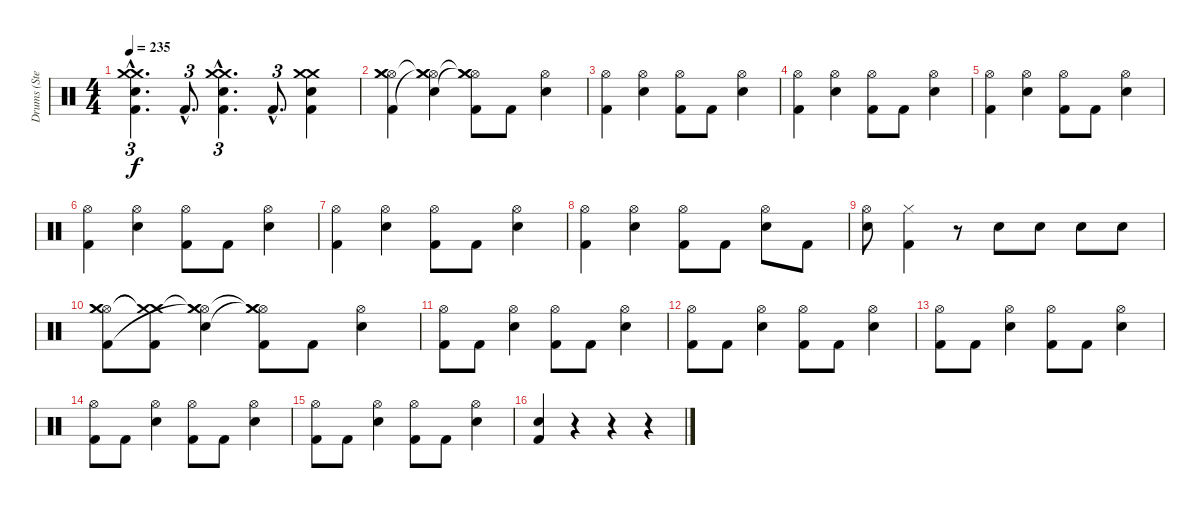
\track ("Drums (Steve Jocz)" "Drums (Ste") {instrument percussion}
\staff {score}
\articulation defaults
\ts (4 4)
\tempo 235
\clef neutral
\ks c
("Crash medium (hit)"{hac} "Crash medium (hit)"{hac} "Electric Snare (hit)"{hac} "Kick (hit) 2"{hac}).4{d tu (3 2) dy f} "Kick (hit) 2"{hac}.8{d tu (3 2)} ("Crash medium (hit)"{hac} "Crash medium (hit)"{hac} "Electric Snare (hit)"{hac} "Kick (hit) 2"{hac}).4{d tu (3 2)} "Kick (hit) 2"{hac}.8{d tu (3 2)} ("Crash medium (hit)" "Crash medium (hit)" "Electric Snare (hit)" "Kick (hit) 2").4 |
("Hi-Hat (open)" "Crash medium (hit)" "Crash medium (hit)" "Kick (hit) 2").4 ("Hi-Hat (open)" "Crash medium (hit)"{t} "Electric Snare (hit)" "Crash medium (hit)"{t}).4 ("Hi-Hat (open)" "Crash medium (hit)"{t} "Crash medium (hit)"{t} "Kick (hit) 2").8 "Kick (hit) 2".8 ("Hi-Hat (open)" "Electric Snare (hit)").4 |
("Hi-Hat (open)" "Kick (hit) 2").4 ("Hi-Hat (open)" "Electric Snare (hit)").4 ("Hi-Hat (open)" "Kick (hit) 2").8 "Kick (hit) 2".8 ("Hi-Hat (open)" "Electric Snare (hit)").4 |
("Hi-Hat (open)" "Kick (hit) 2").4 ("Hi-Hat (open)" "Electric Snare (hit)").4 ("Hi-Hat (open)" "Kick (hit) 2").8 "Kick (hit) 2".8 ("Hi-Hat (open)" "Electric Snare (hit)").4 |
("Hi-Hat (open)" "Kick (hit) 2").4 ("Hi-Hat (open)" "Electric Snare (hit)").4 ("Hi-Hat (open)" "Kick (hit) 2").8 "Kick (hit) 2".8 ("Hi-Hat (open)" "Electric Snare (hit)").4 |
("Hi-Hat (open)" "Kick (hit) 2").4 ("Hi-Hat (open)" "Electric Snare (hit)").4 ("Hi-Hat (open)" "Kick (hit) 2").8 "Kick (hit) 2".8 ("Hi-Hat (open)" "Electric Snare (hit)").4 |
("Hi-Hat (open)" "Kick (hit) 2").4 ("Hi-Hat (open)" "Electric Snare (hit)").4 ("Hi-Hat (open)" "Kick (hit) 2").8 "Kick (hit) 2".8 ("Hi-Hat (open)" "Electric Snare (hit)").4 |
("Hi-Hat (open)" "Kick (hit) 2").4 ("Hi-Hat (open)" "Electric Snare (hit)").4 ("Hi-Hat (open)" "Kick (hit) 2").8 "Kick (hit) 2".8 ("Hi-Hat (open)" "Electric Snare (hit)").8 "Kick (hit) 2".8 |
("Hi-Hat (open)" "Electric Snare (hit)").8 ("Hi-Hat (closed)" "Kick (hit) 2").4 r.8 "Electric Snare (hit)".8 "Electric Snare (hit)".8 "Electric Snare (hit)".8 "Electric Snare (hit)".8 |
("Hi-Hat (open)" "Crash medium (hit)" "Crash medium (hit)" "Kick (hit) 2").8 ("Crash medium (hit)"{t} "Crash medium (hit)"{t} "Kick (hit) 2").8 ("Hi-Hat (open)" "Crash medium (hit)"{t} "Electric Snare (hit)" "Crash medium (hit)"{t}).4 ("Hi-Hat (open)" "Crash medium (hit)"{t} "Crash medium (hit)"{t} "Kick (hit) 2").8 "Kick (hit) 2".8 ("Hi-Hat (open)" "Electric Snare (hit)").4 |
("Hi-Hat (open)" "Kick (hit) 2").8 "Kick (hit) 2".8 ("Hi-Hat (open)" "Electric Snare (hit)").4 ("Hi-Hat (open)" "Kick (hit) 2").8 "Kick (hit) 2".8 ("Hi-Hat (open)" "Electric Snare (hit)").4 |
("Hi-Hat (open)" "Kick (hit) 2").8 "Kick (hit) 2".8 ("Hi-Hat (open)" "Electric Snare (hit)").4 ("Hi-Hat (open)" "Kick (hit) 2").8 "Kick (hit) 2".8 ("Hi-Hat (open)" "Electric Snare (hit)").4 |
("Hi-Hat (open)" "Kick (hit) 2").8 "Kick (hit) 2".8 ("Hi-Hat (open)" "Electric Snare (hit)").4 ("Hi-Hat (open)" "Kick (hit) 2").8 "Kick (hit) 2".8 ("Hi-Hat (open)" "Electric Snare (hit)").4 |
("Hi-Hat (open)" "Kick (hit) 2").8 "Kick (hit) 2".8 ("Hi-Hat (open)" "Electric Snare (hit)").4 ("Hi-Hat (open)" "Kick (hit) 2").8 "Kick (hit) 2".8 ("Hi-Hat (open)" "Electric Snare (hit)").4 |
("Hi-Hat (open)" "Kick (hit) 2").8 "Kick (hit) 2".8 ("Hi-Hat (open)" "Electric Snare (hit)").4 ("Hi-Hat (open)" "Kick (hit) 2").8 "Kick (hit) 2".8 ("Hi-Hat (open)" "Electric Snare (hit)").4 |
("Electric Snare (hit)" "Kick (hit) 2").4 r.4 r.4 r.4
